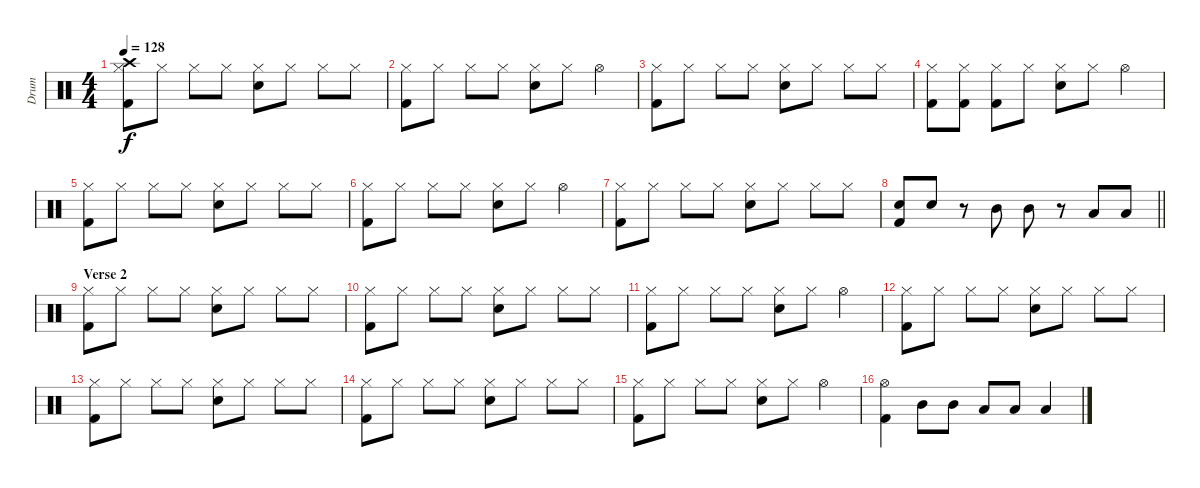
\track ("Drum" "Drum") {instrument percussion}
\staff {score}
\articulation defaults
\ts (4 4)
\tempo 128
\clef neutral
\ks c
("Crash high (hit)" "Hi-Hat (closed)" "Kick (hit) 2").8{dy f} "Hi-Hat (closed)".8 "Hi-Hat (closed)".8 "Hi-Hat (closed)".8 ("Hi-Hat (closed)" "Snare (hit) 2").8 "Hi-Hat (closed)".8 "Hi-Hat (closed)".8 "Hi-Hat (closed)".8 |
("Hi-Hat (closed)" "Kick (hit) 2").8 "Hi-Hat (closed)".8 "Hi-Hat (closed)".8 "Hi-Hat (closed)".8 ("Hi-Hat (closed)" "Snare (hit) 2").8 "Hi-Hat (closed)".8 "Hi-Hat (open)".4 |
("Hi-Hat (closed)" "Kick (hit) 2").8 "Hi-Hat (closed)".8 "Hi-Hat (closed)".8 "Hi-Hat (closed)".8 ("Hi-Hat (closed)" "Snare (hit) 2").8 "Hi-Hat (closed)".8 "Hi-Hat (closed)".8 "Hi-Hat (closed)".8 |
("Hi-Hat (closed)" "Kick (hit) 2").8 ("Hi-Hat (closed)" "Kick (hit) 2").8 ("Hi-Hat (closed)" "Kick (hit) 2").8 "Hi-Hat (closed)".8 ("Hi-Hat (closed)" "Snare (hit) 2").8 "Hi-Hat (closed)".8 "Hi-Hat (open)".4 |
("Hi-Hat (closed)" "Kick (hit) 2").8 "Hi-Hat (closed)".8 "Hi-Hat (closed)".8 "Hi-Hat (closed)".8 ("Hi-Hat (closed)" "Snare (hit) 2").8 "Hi-Hat (closed)".8 "Hi-Hat (closed)".8 "Hi-Hat (closed)".8 |
("Hi-Hat (closed)" "Kick (hit) 2").8 "Hi-Hat (closed)".8 "Hi-Hat (closed)".8 "Hi-Hat (closed)".8 ("Hi-Hat (closed)" "Snare (hit) 2").8 "Hi-Hat (closed)".8 "Hi-Hat (open)".4 |
("Hi-Hat (closed)" "Kick (hit) 2").8 "Hi-Hat (closed)".8 "Hi-Hat (closed)".8 "Hi-Hat (closed)".8 ("Hi-Hat (closed)" "Snare (hit) 2").8 "Hi-Hat (closed)".8 "Hi-Hat (closed)".8 "Hi-Hat (closed)".8 |
\barLineRight lightlight
("Snare (hit) 2" "Kick (hit) 2").8 "Snare (hit) 2".8 r.8 "Mid Tom (hit)".8 "Mid Tom (hit)".8 r.8 "Low Tom (hit)".8 "Low Tom (hit)".8 |
\section ("" "Verse 2")
("Hi-Hat (closed)" "Kick (hit) 2").8 "Hi-Hat (closed)".8 "Hi-Hat (closed)".8 "Hi-Hat (closed)".8 ("Hi-Hat (closed)" "Snare (hit) 2").8 "Hi-Hat (closed)".8 "Hi-Hat (closed)".8 "Hi-Hat (closed)".8 |
("Hi-Hat (closed)" "Kick (hit) 2").8 "Hi-Hat (closed)".8 "Hi-Hat (closed)".8 "Hi-Hat (closed)".8 ("Hi-Hat (closed)" "Snare (hit) 2").8 "Hi-Hat (closed)".8 "Hi-Hat (closed)".8 "Hi-Hat (closed)".8 |
("Hi-Hat (closed)" "Kick (hit) 2").8 "Hi-Hat (closed)".8 "Hi-Hat (closed)".8 "Hi-Hat (closed)".8 ("Hi-Hat (closed)" "Snare (hit) 2").8 "Hi-Hat (closed)".8 "Hi-Hat (open)".4 |
("Hi-Hat (closed)" "Kick (hit) 2").8 "Hi-Hat (closed)".8 "Hi-Hat (closed)".8 "Hi-Hat (closed)".8 ("Hi-Hat (closed)" "Snare (hit) 2").8 "Hi-Hat (closed)".8 "Hi-Hat (closed)".8 "Hi-Hat (closed)".8 |
("Hi-Hat (closed)" "Kick (hit) 2").8 "Hi-Hat (closed)".8 "Hi-Hat (closed)".8 "Hi-Hat (closed)".8 ("Hi-Hat (closed)" "Snare (hit) 2").8 "Hi-Hat (closed)".8 "Hi-Hat (closed)".8 "Hi-Hat (closed)".8 |
("Hi-Hat (closed)" "Kick (hit) 2").8 "Hi-Hat (closed)".8 "Hi-Hat (closed)".8 "Hi-Hat (closed)".8 ("Hi-Hat (closed)" "Snare (hit) 2").8 "Hi-Hat (closed)".8 "Hi-Hat (closed)".8 "Hi-Hat (closed)".8 |
("Hi-Hat (closed)" "Kick (hit) 2").8 "Hi-Hat (closed)".8 "Hi-Hat (closed)".8 "Hi-Hat (closed)".8 ("Hi-Hat (closed)" "Snare (hit) 2").8 "Hi-Hat (closed)".8 "Hi-Hat (open)".4 |
("Hi-Hat (open)" "Kick (hit) 2").4 "Mid Tom (hit)".8 "Mid Tom (hit)".8 "Low Tom (hit)".8 "Low Tom (hit)".8 "Low Tom (hit)".4
